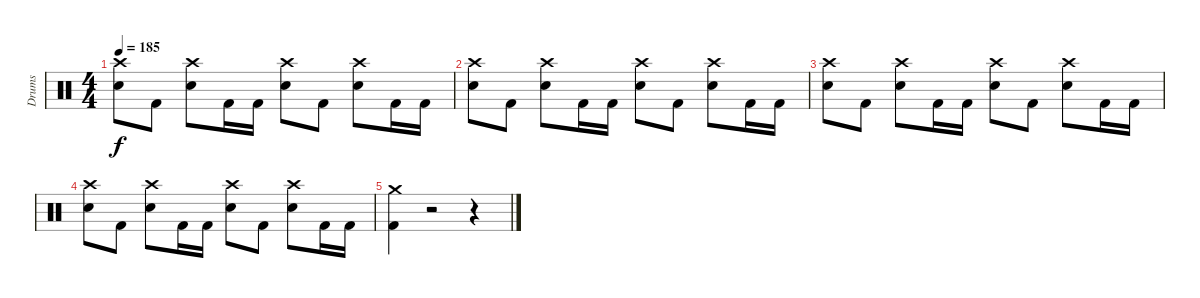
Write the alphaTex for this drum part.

\track ("Drums" "Drums") {instrument percussion}
\staff {score}
\articulation defaults
\ts (4 4)
\tempo 185
\clef neutral
\ks c
("Electric Snare (hit)" "Crash high (hit)").8{dy f} "Kick (hit) 2".8 ("Electric Snare (hit)" "Crash high (hit)").8 "Kick (hit) 2".16 "Kick (hit) 2".16 ("Electric Snare (hit)" "Crash high (hit)").8 "Kick (hit) 2".8 ("Electric Snare (hit)" "Crash high (hit)").8 "Kick (hit) 2".16 "Kick (hit) 2".16 |
("Electric Snare (hit)" "Crash high (hit)").8 "Kick (hit) 2".8 ("Electric Snare (hit)" "Crash high (hit)").8 "Kick (hit) 2".16 "Kick (hit) 2".16 ("Electric Snare (hit)" "Crash high (hit)").8 "Kick (hit) 2".8 ("Electric Snare (hit)" "Crash high (hit)").8 "Kick (hit) 2".16 "Kick (hit) 2".16 |
("Electric Snare (hit)" "Crash high (hit)").8 "Kick (hit) 2".8 ("Electric Snare (hit)" "Crash high (hit)").8 "Kick (hit) 2".16 "Kick (hit) 2".16 ("Electric Snare (hit)" "Crash high (hit)").8 "Kick (hit) 2".8 ("Electric Snare (hit)" "Crash high (hit)").8 "Kick (hit) 2".16 "Kick (hit) 2".16 |
("Electric Snare (hit)" "Crash high (hit)").8 "Kick (hit) 2".8 ("Electric Snare (hit)" "Crash high (hit)").8 "Kick (hit) 2".16 "Kick (hit) 2".16 ("Electric Snare (hit)" "Crash high (hit)").8 "Kick (hit) 2".8 ("Electric Snare (hit)" "Crash high (hit)").8 "Kick (hit) 2".16 "Kick (hit) 2".16 |
("Crash medium (hit)" "Kick (hit) 2").4 r.2 r.4
